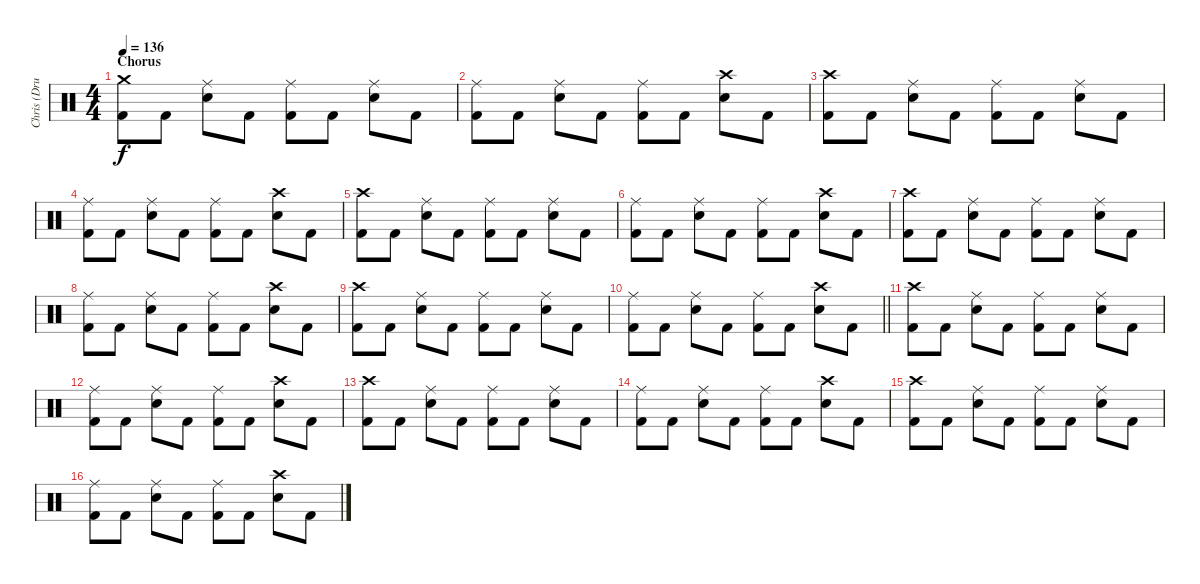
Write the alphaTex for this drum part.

\track ("Chris (Drums)" "Chris (Dru") {instrument percussion}
\staff {score}
\articulation defaults
\ts (4 4)
\section ("" "Chorus")
\tempo 136
\clef neutral
\ks c
("Crash medium (hit)" "Kick (hit) 2").8{dy f} "Kick (hit) 2".8 ("Ride (middle)" "Snare (hit) 2").8 "Kick (hit) 2".8 ("Ride (middle)" "Kick (hit) 2").8 "Kick (hit) 2".8 ("Ride (middle)" "Snare (hit) 2").8 "Kick (hit) 2".8 |
("Ride (middle)" "Kick (hit) 2").8 "Kick (hit) 2".8 ("Ride (middle)" "Snare (hit) 2").8 "Kick (hit) 2".8 ("Ride (middle)" "Kick (hit) 2").8 "Kick (hit) 2".8 ("Crash high (hit)" "Snare (hit) 2").8 "Kick (hit) 2".8 |
("Crash high (hit)" "Kick (hit) 2").8 "Kick (hit) 2".8 ("Ride (middle)" "Snare (hit) 2").8 "Kick (hit) 2".8 ("Ride (middle)" "Kick (hit) 2").8 "Kick (hit) 2".8 ("Ride (middle)" "Snare (hit) 2").8 "Kick (hit) 2".8 |
("Ride (middle)" "Kick (hit) 2").8 "Kick (hit) 2".8 ("Ride (middle)" "Snare (hit) 2").8 "Kick (hit) 2".8 ("Ride (middle)" "Kick (hit) 2").8 "Kick (hit) 2".8 ("Crash high (hit)" "Snare (hit) 2").8 "Kick (hit) 2".8 |
("Crash high (hit)" "Kick (hit) 2").8 "Kick (hit) 2".8 ("Ride (middle)" "Snare (hit) 2").8 "Kick (hit) 2".8 ("Ride (middle)" "Kick (hit) 2").8 "Kick (hit) 2".8 ("Ride (middle)" "Snare (hit) 2").8 "Kick (hit) 2".8 |
("Ride (middle)" "Kick (hit) 2").8 "Kick (hit) 2".8 ("Ride (middle)" "Snare (hit) 2").8 "Kick (hit) 2".8 ("Ride (middle)" "Kick (hit) 2").8 "Kick (hit) 2".8 ("Crash high (hit)" "Snare (hit) 2").8 "Kick (hit) 2".8 |
("Crash high (hit)" "Kick (hit) 2").8 "Kick (hit) 2".8 ("Ride (middle)" "Snare (hit) 2").8 "Kick (hit) 2".8 ("Ride (middle)" "Kick (hit) 2").8 "Kick (hit) 2".8 ("Ride (middle)" "Snare (hit) 2").8 "Kick (hit) 2".8 |
("Ride (middle)" "Kick (hit) 2").8 "Kick (hit) 2".8 ("Ride (middle)" "Snare (hit) 2").8 "Kick (hit) 2".8 ("Ride (middle)" "Kick (hit) 2").8 "Kick (hit) 2".8 ("Crash high (hit)" "Snare (hit) 2").8 "Kick (hit) 2".8 |
("Crash high (hit)" "Kick (hit) 2").8 "Kick (hit) 2".8 ("Ride (middle)" "Snare (hit) 2").8 "Kick (hit) 2".8 ("Ride (middle)" "Kick (hit) 2").8 "Kick (hit) 2".8 ("Ride (middle)" "Snare (hit) 2").8 "Kick (hit) 2".8 |
\barLineRight lightlight
("Ride (middle)" "Kick (hit) 2").8 "Kick (hit) 2".8 ("Ride (middle)" "Snare (hit) 2").8 "Kick (hit) 2".8 ("Ride (middle)" "Kick (hit) 2").8 "Kick (hit) 2".8 ("Crash high (hit)" "Snare (hit) 2").8 "Kick (hit) 2".8 |
("Crash high (hit)" "Kick (hit) 2").8 "Kick (hit) 2".8 ("Ride (middle)" "Snare (hit) 2").8 "Kick (hit) 2".8 ("Ride (middle)" "Kick (hit) 2").8 "Kick (hit) 2".8 ("Ride (middle)" "Snare (hit) 2").8 "Kick (hit) 2".8 |
("Ride (middle)" "Kick (hit) 2").8 "Kick (hit) 2".8 ("Ride (middle)" "Snare (hit) 2").8 "Kick (hit) 2".8 ("Ride (middle)" "Kick (hit) 2").8 "Kick (hit) 2".8 ("Crash high (hit)" "Snare (hit) 2").8 "Kick (hit) 2".8 |
("Crash high (hit)" "Kick (hit) 2").8 "Kick (hit) 2".8 ("Ride (middle)" "Snare (hit) 2").8 "Kick (hit) 2".8 ("Ride (middle)" "Kick (hit) 2").8 "Kick (hit) 2".8 ("Ride (middle)" "Snare (hit) 2").8 "Kick (hit) 2".8 |
("Ride (middle)" "Kick (hit) 2").8 "Kick (hit) 2".8 ("Ride (middle)" "Snare (hit) 2").8 "Kick (hit) 2".8 ("Ride (middle)" "Kick (hit) 2").8 "Kick (hit) 2".8 ("Crash high (hit)" "Snare (hit) 2").8 "Kick (hit) 2".8 |
("Crash high (hit)" "Kick (hit) 2").8 "Kick (hit) 2".8 ("Ride (middle)" "Snare (hit) 2").8 "Kick (hit) 2".8 ("Ride (middle)" "Kick (hit) 2").8 "Kick (hit) 2".8 ("Ride (middle)" "Snare (hit) 2").8 "Kick (hit) 2".8 |
("Ride (middle)" "Kick (hit) 2").8 "Kick (hit) 2".8 ("Ride (middle)" "Snare (hit) 2").8 "Kick (hit) 2".8 ("Ride (middle)" "Kick (hit) 2").8 "Kick (hit) 2".8 ("Crash high (hit)" "Snare (hit) 2").8 "Kick (hit) 2".8
